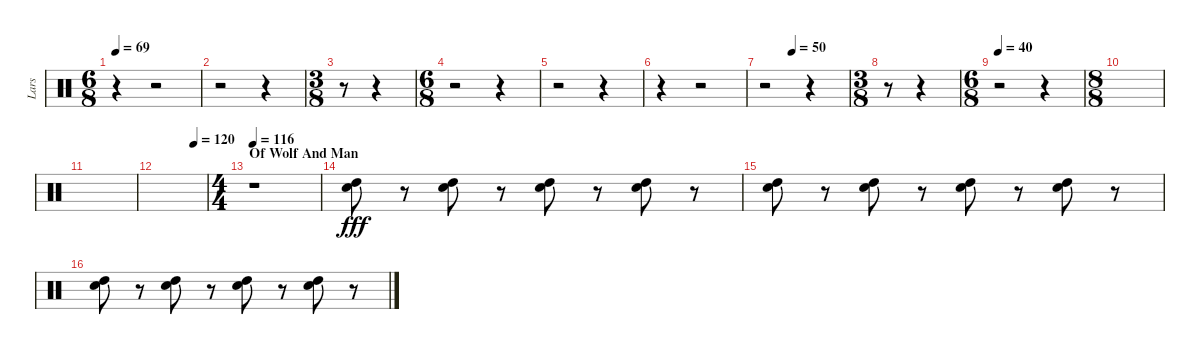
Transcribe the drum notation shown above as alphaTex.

\track ("Lars" "Lars") {instrument percussion}
\staff {score}
\articulation defaults
\ts (6 8)
\tempo 69
\clef neutral
\ks c
r.4{dy f} r.2 |
r.2 r.4 |
\ts (3 8)
r.8 r.4 |
\ts (6 8)
r.2 r.4 |
r.2 r.4 |
r.4 r.2 |
\tempo (50 0.3333333333333333)
r.2 r.4 |
\ts (3 8)
r.8 r.4 |
\ts (6 8)
\tempo 40
r.2 r.4 |
\ts (8 8)
|
|
\tempo (120 0.75)
|
\ts (4 4)
\section ("" "Of Wolf And Man")
\tempo 116
r.1 |
("High Tom (hit)" "Electric Snare (hit)").8{dy fff} r.8 ("High Tom (hit)" "Electric Snare (hit)").8 r.8 ("High Tom (hit)" "Electric Snare (hit)").8 r.8 ("High Tom (hit)" "Electric Snare (hit)").8 r.8 |
("High Tom (hit)" "Electric Snare (hit)").8 r.8 ("High Tom (hit)" "Electric Snare (hit)").8 r.8 ("High Tom (hit)" "Electric Snare (hit)").8 r.8 ("High Tom (hit)" "Electric Snare (hit)").8 r.8 |
("High Tom (hit)" "Electric Snare (hit)").8 r.8 ("High Tom (hit)" "Electric Snare (hit)").8 r.8 ("High Tom (hit)" "Electric Snare (hit)").8 r.8 ("High Tom (hit)" "Electric Snare (hit)").8 r.8
